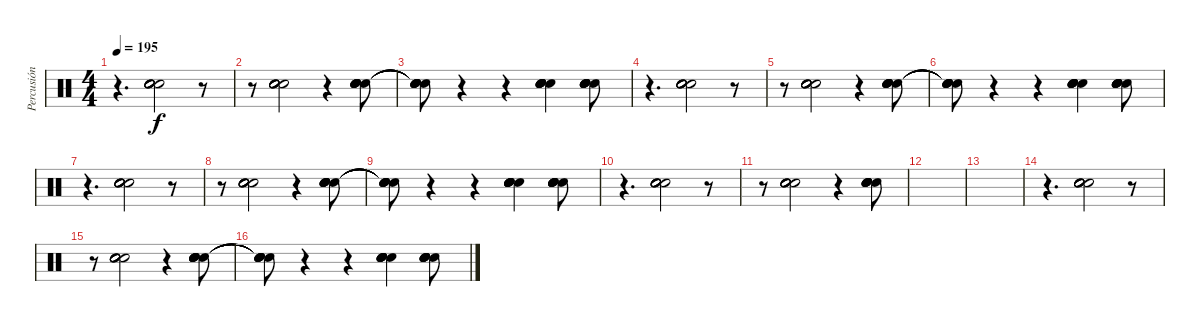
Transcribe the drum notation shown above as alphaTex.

\track ("Percusión" "Percusión") {instrument percussion}
\staff {score}
\articulation defaults
\ts (4 4)
\tempo 195
\clef neutral
\ks c
r.4{d dy f} ("Hand Clap (hit)" "Hand Clap (hit)" "Hand Clap (hit)" "Hand Clap (hit)" "Hand Clap (hit)" "Hand Clap (hit)").2{bd 120} r.8 |
r.8 ("Hand Clap (hit)" "Hand Clap (hit)" "Hand Clap (hit)" "Hand Clap (hit)" "Hand Clap (hit)" "Hand Clap (hit)").2{bd 120} r.4 ("Hand Clap (hit)" "Hand Clap (hit)" "Hand Clap (hit)" "Hand Clap (hit)" "Hand Clap (hit)" "Hand Clap (hit)").8{bd 120} |
("Snare (hit)"{t} "Snare (hit)"{t} "Snare (hit)"{t} "Snare (hit)"{t} "Snare (hit)"{t} "Snare (hit)"{t}).8 r.4 r.4 ("Hand Clap (hit)" "Hand Clap (hit)" "Hand Clap (hit)" "Hand Clap (hit)" "Hand Clap (hit)" "Hand Clap (hit)").4{bd 120} ("Hand Clap (hit)" "Hand Clap (hit)" "Hand Clap (hit)" "Hand Clap (hit)" "Hand Clap (hit)" "Hand Clap (hit)").8{bd 120} |
r.4{d} ("Hand Clap (hit)" "Hand Clap (hit)" "Hand Clap (hit)" "Hand Clap (hit)" "Hand Clap (hit)" "Hand Clap (hit)").2{bd 120} r.8 |
r.8 ("Hand Clap (hit)" "Hand Clap (hit)" "Hand Clap (hit)" "Hand Clap (hit)" "Hand Clap (hit)" "Hand Clap (hit)").2{bd 120} r.4 ("Hand Clap (hit)" "Hand Clap (hit)" "Hand Clap (hit)" "Hand Clap (hit)" "Hand Clap (hit)" "Hand Clap (hit)").8{bd 120} |
("Snare (hit)"{t} "Snare (hit)"{t} "Snare (hit)"{t} "Snare (hit)"{t} "Snare (hit)"{t} "Snare (hit)"{t}).8 r.4 r.4 ("Hand Clap (hit)" "Hand Clap (hit)" "Hand Clap (hit)" "Hand Clap (hit)" "Hand Clap (hit)" "Hand Clap (hit)").4{bd 120} ("Hand Clap (hit)" "Hand Clap (hit)" "Hand Clap (hit)" "Hand Clap (hit)" "Hand Clap (hit)" "Hand Clap (hit)").8{bd 120} |
r.4{d} ("Hand Clap (hit)" "Hand Clap (hit)" "Hand Clap (hit)" "Hand Clap (hit)" "Hand Clap (hit)" "Hand Clap (hit)").2{bd 120} r.8 |
r.8 ("Hand Clap (hit)" "Hand Clap (hit)" "Hand Clap (hit)" "Hand Clap (hit)" "Hand Clap (hit)" "Hand Clap (hit)").2{bd 120} r.4 ("Hand Clap (hit)" "Hand Clap (hit)" "Hand Clap (hit)" "Hand Clap (hit)" "Hand Clap (hit)" "Hand Clap (hit)").8{bd 120} |
("Snare (hit)"{t} "Snare (hit)"{t} "Snare (hit)"{t} "Snare (hit)"{t} "Snare (hit)"{t} "Snare (hit)"{t}).8 r.4 r.4 ("Hand Clap (hit)" "Hand Clap (hit)" "Hand Clap (hit)" "Hand Clap (hit)" "Hand Clap (hit)" "Hand Clap (hit)").4{bd 120} ("Hand Clap (hit)" "Hand Clap (hit)" "Hand Clap (hit)" "Hand Clap (hit)" "Hand Clap (hit)" "Hand Clap (hit)").8{bd 120} |
r.4{d} ("Hand Clap (hit)" "Hand Clap (hit)" "Hand Clap (hit)" "Hand Clap (hit)" "Hand Clap (hit)" "Hand Clap (hit)").2{bd 120} r.8 |
r.8 ("Hand Clap (hit)" "Hand Clap (hit)" "Hand Clap (hit)" "Hand Clap (hit)" "Hand Clap (hit)" "Hand Clap (hit)").2{bd 120} r.4 ("Hand Clap (hit)" "Hand Clap (hit)" "Hand Clap (hit)" "Hand Clap (hit)" "Hand Clap (hit)" "Hand Clap (hit)").8{bd 120} |
|
|
r.4{d} ("Hand Clap (hit)" "Hand Clap (hit)" "Hand Clap (hit)" "Hand Clap (hit)" "Hand Clap (hit)" "Hand Clap (hit)").2{bd 120} r.8 |
r.8 ("Hand Clap (hit)" "Hand Clap (hit)" "Hand Clap (hit)" "Hand Clap (hit)" "Hand Clap (hit)" "Hand Clap (hit)").2{bd 120} r.4 ("Hand Clap (hit)" "Hand Clap (hit)" "Hand Clap (hit)" "Hand Clap (hit)" "Hand Clap (hit)" "Hand Clap (hit)").8{bd 120} |
("Snare (hit)"{t} "Snare (hit)"{t} "Snare (hit)"{t} "Snare (hit)"{t} "Snare (hit)"{t} "Snare (hit)"{t}).8 r.4 r.4 ("Hand Clap (hit)" "Hand Clap (hit)" "Hand Clap (hit)" "Hand Clap (hit)" "Hand Clap (hit)" "Hand Clap (hit)").4{bd 120} ("Hand Clap (hit)" "Hand Clap (hit)" "Hand Clap (hit)" "Hand Clap (hit)" "Hand Clap (hit)" "Hand Clap (hit)").8{bd 120}
